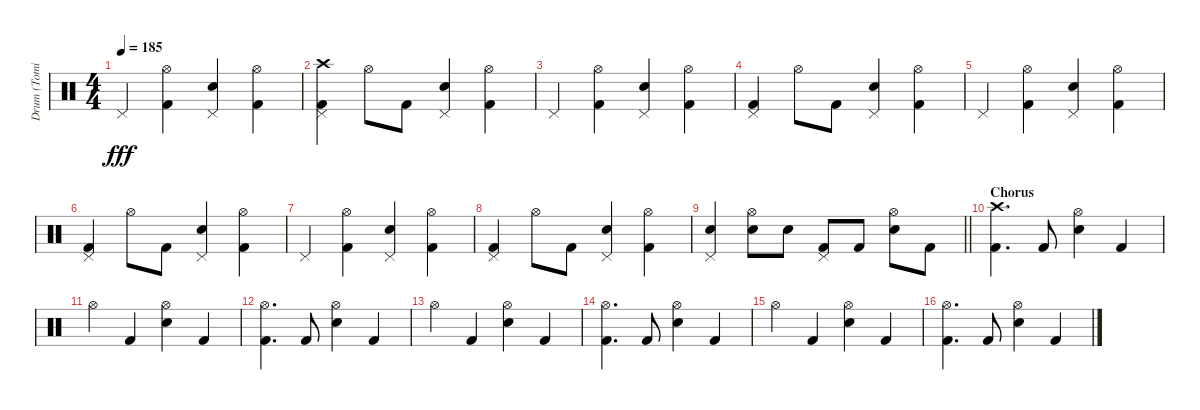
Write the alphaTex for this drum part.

\track ("Drum (Tomi)" "Drum (Tomi") {instrument percussion}
\staff {score}
\articulation defaults
\ts (4 4)
\tempo 185
\clef neutral
\ks c "Pedal Hi-Hat (hit)".4{dy fff}
("Hi-Hat (open)" "Kick (hit) 2").4 ("Pedal Hi-Hat (hit)" "Electric Snare (hit)").4 ("Hi-Hat (open)" "Kick (hit) 2").4 |
("Crash high (hit)" "Pedal Hi-Hat (hit)" "Kick (hit) 2").4 "Hi-Hat (open)".8 "Kick (hit) 2".8 ("Pedal Hi-Hat (hit)" "Electric Snare (hit)").4 ("Hi-Hat (open)" "Kick (hit) 2").4 |
"Pedal Hi-Hat (hit)".4 ("Hi-Hat (open)" "Kick (hit) 2").4 ("Pedal Hi-Hat (hit)" "Electric Snare (hit)").4 ("Hi-Hat (open)" "Kick (hit) 2").4 |
("Pedal Hi-Hat (hit)" "Kick (hit) 2").4 "Hi-Hat (open)".8 "Kick (hit) 2".8 ("Pedal Hi-Hat (hit)" "Electric Snare (hit)").4 ("Hi-Hat (open)" "Kick (hit) 2").4 |
"Pedal Hi-Hat (hit)".4 ("Hi-Hat (open)" "Kick (hit) 2").4 ("Pedal Hi-Hat (hit)" "Electric Snare (hit)").4 ("Hi-Hat (open)" "Kick (hit) 2").4 |
("Pedal Hi-Hat (hit)" "Kick (hit) 2").4 "Hi-Hat (open)".8 "Kick (hit) 2".8 ("Pedal Hi-Hat (hit)" "Electric Snare (hit)").4 ("Hi-Hat (open)" "Kick (hit) 2").4 |
"Pedal Hi-Hat (hit)".4 ("Hi-Hat (open)" "Kick (hit) 2").4 ("Pedal Hi-Hat (hit)" "Electric Snare (hit)").4 ("Hi-Hat (open)" "Kick (hit) 2").4 |
("Pedal Hi-Hat (hit)" "Kick (hit) 2").4 "Hi-Hat (open)".8 "Kick (hit) 2".8 ("Pedal Hi-Hat (hit)" "Electric Snare (hit)").4 ("Hi-Hat (open)" "Kick (hit) 2").4 |
\barLineRight lightlight
("Pedal Hi-Hat (hit)" "Electric Snare (hit)").4 ("Hi-Hat (open)" "Electric Snare (hit)").8 "Electric Snare (hit)".8 ("Pedal Hi-Hat (hit)" "Kick (hit) 2").8 "Kick (hit) 2".8 ("Hi-Hat (open)" "Electric Snare (hit)").8 "Kick (hit) 2".8 |
\section ("" "Chorus")
("Crash high (hit)" "Kick (hit) 2").4{d} "Kick (hit) 2".8 ("Hi-Hat (open)" "Electric Snare (hit)").4 "Kick (hit) 2".4 |
"Hi-Hat (open)".4 "Kick (hit) 2".4 ("Hi-Hat (open)" "Electric Snare (hit)").4 "Kick (hit) 2".4 |
("Kick (hit) 2" "Hi-Hat (open)").4{d} "Kick (hit) 2".8 ("Hi-Hat (open)" "Electric Snare (hit)").4 "Kick (hit) 2".4 |
"Hi-Hat (open)".4 "Kick (hit) 2".4 ("Hi-Hat (open)" "Electric Snare (hit)").4 "Kick (hit) 2".4 |
("Kick (hit) 2" "Hi-Hat (open)").4{d} "Kick (hit) 2".8 ("Hi-Hat (open)" "Electric Snare (hit)").4 "Kick (hit) 2".4 |
"Hi-Hat (open)".4 "Kick (hit) 2".4 ("Hi-Hat (open)" "Electric Snare (hit)").4 "Kick (hit) 2".4 |
("Hi-Hat (open)" "Kick (hit) 2").4{d} "Kick (hit) 2".8 ("Hi-Hat (open)" "Electric Snare (hit)").4 "Kick (hit) 2".4
